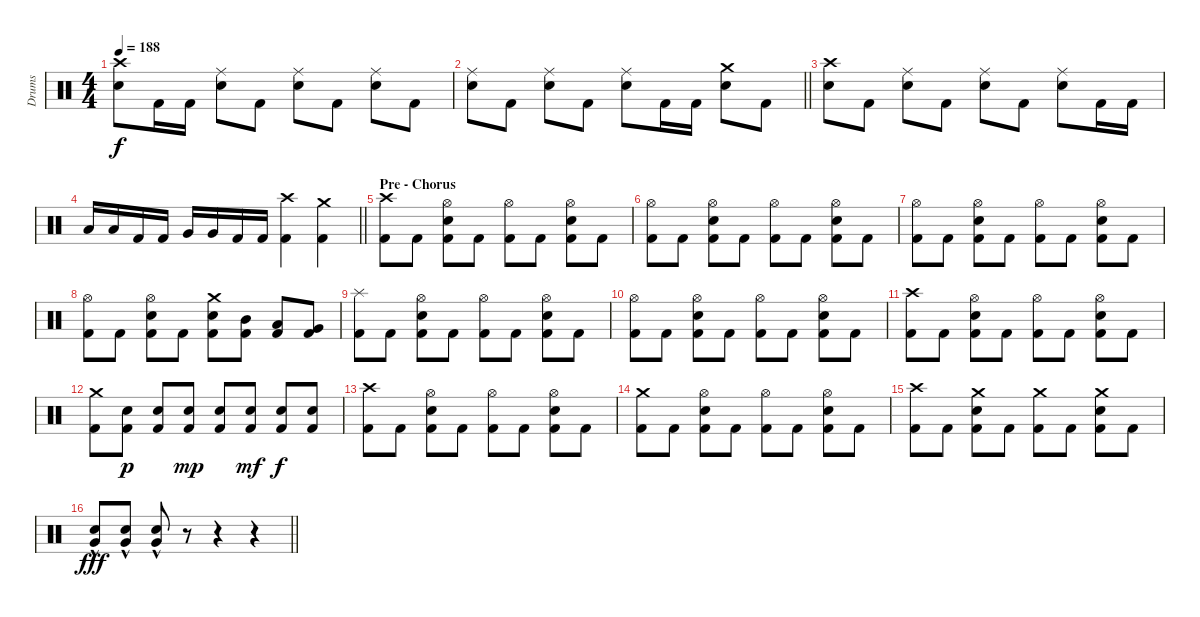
\track ("Drums" "Drums") {instrument percussion}
\staff {score}
\articulation defaults
\ts (4 4)
\tempo 188
\clef neutral
\ks c
("Crash high (hit)" "Electric Snare (hit)").8{dy f} "Kick (hit) 2".16 "Kick (hit) 2".16 ("Ride (middle)" "Electric Snare (hit)").8 "Kick (hit) 2".8 ("Ride (middle)" "Electric Snare (hit)").8 "Kick (hit) 2".8 ("Ride (middle)" "Electric Snare (hit)").8 "Kick (hit) 2".8 |
\barLineRight lightlight
("Ride (middle)" "Electric Snare (hit)").8 "Kick (hit) 2".8 ("Ride (middle)" "Electric Snare (hit)").8 "Kick (hit) 2".8 ("Ride (middle)" "Electric Snare (hit)").8 "Kick (hit) 2".16 "Kick (hit) 2".16 ("Crash medium (hit)" "Electric Snare (hit)").8 "Kick (hit) 2".8 |
("Crash high (hit)" "Electric Snare (hit)").8 "Kick (hit) 2".8 ("Ride (middle)" "Electric Snare (hit)").8 "Kick (hit) 2".8 ("Ride (middle)" "Electric Snare (hit)").8 "Kick (hit) 2".8 ("Ride (middle)" "Electric Snare (hit)").8 "Kick (hit) 2".16 "Kick (hit) 2".16 |
\barLineRight lightlight "Low Tom (hit)".16 "Low Tom (hit)".16 "Kick (hit) 2".16 "Kick (hit) 2".16 "Very Low Tom (hit)".16 "Very Low Tom (hit)".16 "Kick (hit) 2".16 "Kick (hit) 2".16
("Crash high (hit)" "Kick (hit) 2").4 ("Crash medium (hit)" "Kick (hit) 2").4 |
\section ("" "Pre - Chorus")
("Crash high (hit)" "Kick (hit) 2").8 "Kick (hit) 2".8 ("Hi-Hat (open)" "Electric Snare (hit)" "Kick (hit) 2").8 "Kick (hit) 2".8 ("Hi-Hat (open)" "Kick (hit) 2").8 "Kick (hit) 2".8 ("Hi-Hat (open)" "Electric Snare (hit)" "Kick (hit) 2").8 "Kick (hit) 2".8 |
("Hi-Hat (open)" "Kick (hit) 2").8 "Kick (hit) 2".8 ("Hi-Hat (open)" "Electric Snare (hit)" "Kick (hit) 2").8 "Kick (hit) 2".8 ("Hi-Hat (open)" "Kick (hit) 2").8 "Kick (hit) 2".8 ("Hi-Hat (open)" "Electric Snare (hit)" "Kick (hit) 2").8 "Kick (hit) 2".8 |
("Hi-Hat (open)" "Kick (hit) 2").8 "Kick (hit) 2".8 ("Hi-Hat (open)" "Electric Snare (hit)" "Kick (hit) 2").8 "Kick (hit) 2".8 ("Hi-Hat (open)" "Kick (hit) 2").8 "Kick (hit) 2".8 ("Hi-Hat (open)" "Electric Snare (hit)" "Kick (hit) 2").8 "Kick (hit) 2".8 |
("Hi-Hat (open)" "Kick (hit) 2").8 "Kick (hit) 2".8 ("Hi-Hat (open)" "Electric Snare (hit)" "Kick (hit) 2").8 "Kick (hit) 2".8 ("Crash medium (hit)" "Electric Snare (hit)" "Kick (hit) 2").8 ("Mid Tom (hit)" "Kick (hit) 2").8 ("Low Tom (hit)" "Kick (hit) 2").8 ("Very Low Tom (hit)" "Kick (hit) 2").8 |
("Splash (hit)" "Kick (hit) 2").8 "Kick (hit) 2".8 ("Hi-Hat (open)" "Electric Snare (hit)" "Kick (hit) 2").8 "Kick (hit) 2".8 ("Hi-Hat (open)" "Kick (hit) 2").8 "Kick (hit) 2".8 ("Hi-Hat (open)" "Electric Snare (hit)" "Kick (hit) 2").8 "Kick (hit) 2".8 |
("Hi-Hat (open)" "Kick (hit) 2").8 "Kick (hit) 2".8 ("Hi-Hat (open)" "Electric Snare (hit)" "Kick (hit) 2").8 "Kick (hit) 2".8 ("Hi-Hat (open)" "Kick (hit) 2").8 "Kick (hit) 2".8 ("Hi-Hat (open)" "Electric Snare (hit)" "Kick (hit) 2").8 "Kick (hit) 2".8 |
("Crash high (hit)" "Kick (hit) 2").8 "Kick (hit) 2".8 ("Hi-Hat (open)" "Electric Snare (hit)" "Kick (hit) 2").8 "Kick (hit) 2".8 ("Hi-Hat (open)" "Kick (hit) 2").8 "Kick (hit) 2".8 ("Hi-Hat (open)" "Electric Snare (hit)" "Kick (hit) 2").8 "Kick (hit) 2".8 |
("Crash medium (hit)" "Kick (hit) 2").8 ("Electric Snare (hit)" "Kick (hit) 2").8{dy p} ("Electric Snare (hit)" "Kick (hit) 2").8 ("Electric Snare (hit)" "Kick (hit) 2").8{dy mp} ("Electric Snare (hit)" "Kick (hit) 2").8 ("Electric Snare (hit)" "Kick (hit) 2").8{dy mf} ("Electric Snare (hit)" "Kick (hit) 2").8{dy f} ("Electric Snare (hit)" "Kick (hit) 2").8 |
("Crash high (hit)" "Kick (hit) 2").8 "Kick (hit) 2".8 ("Hi-Hat (open)" "Electric Snare (hit)" "Kick (hit) 2").8 "Kick (hit) 2".8 ("Hi-Hat (open)" "Kick (hit) 2").8 "Kick (hit) 2".8 ("Hi-Hat (open)" "Electric Snare (hit)" "Kick (hit) 2").8 "Kick (hit) 2".8 |
("Crash medium (hit)" "Kick (hit) 2").8 "Kick (hit) 2".8 ("Hi-Hat (open)" "Electric Snare (hit)" "Kick (hit) 2").8 "Kick (hit) 2".8 ("Hi-Hat (open)" "Kick (hit) 2").8 "Kick (hit) 2".8 ("Hi-Hat (open)" "Electric Snare (hit)" "Kick (hit) 2").8 "Kick (hit) 2".8 |
("Crash high (hit)" "Kick (hit) 2").8 "Kick (hit) 2".8 ("Crash medium (hit)" "Electric Snare (hit)" "Kick (hit) 2").8 "Kick (hit) 2".8 ("Crash medium (hit)" "Kick (hit) 2").8 "Kick (hit) 2".8 ("Crash medium (hit)" "Electric Snare (hit)" "Kick (hit) 2").8 "Kick (hit) 2".8 |
\barLineRight lightlight
("Electric Snare (hit)"{hac} "Very Low Tom (hit)"{hac}).8{dy fff} ("Electric Snare (hit)"{hac} "Very Low Tom (hit)"{hac}).8 ("Electric Snare (hit)"{hac} "Very Low Tom (hit)"{hac}).8 r.8 r.4 r.4
